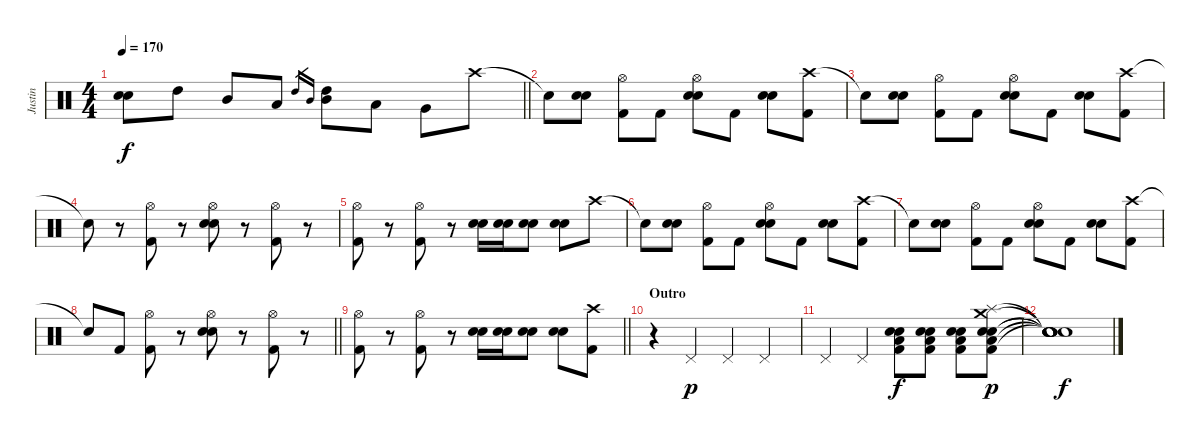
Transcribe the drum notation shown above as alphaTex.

\track ("Justin" "Justin") {instrument percussion}
\staff {score}
\articulation defaults
\ts (4 4)
\tempo 170
\clef neutral
\barLineRight lightlight
\ks c
("Electric Snare (hit)" "Snare (hit) 2").8{dy f} "High Tom (hit)".8 "Mid Tom (hit)".8 "Low Tom (hit)".8 "High Tom (hit)".16{gr} "Mid Tom (hit)".16{gr} ("High Tom (hit)" "Mid Tom (hit)").8 "Low Tom (hit)".8 "Very Low Tom (hit)".8 "Crash high (hit)".8 |
"Snare (hit)"{t}.8 ("Electric Snare (hit)" "Snare (hit) 2").8 ("Hi-Hat (open)" "Kick (hit) 2").8 "Kick (hit) 2".8 ("Hi-Hat (open)" "Electric Snare (hit)" "Snare (hit) 2").8 "Kick (hit) 2".8 ("Electric Snare (hit)" "Snare (hit) 2").8 ("Crash high (hit)" "Kick (hit) 2").8 |
"Snare (hit)"{t}.8 ("Electric Snare (hit)" "Snare (hit) 2").8 ("Hi-Hat (open)" "Kick (hit) 2").8 "Kick (hit) 2".8 ("Hi-Hat (open)" "Electric Snare (hit)" "Snare (hit) 2").8 "Kick (hit) 2".8 ("Electric Snare (hit)" "Snare (hit) 2").8 ("Crash high (hit)" "Kick (hit) 2").8 |
"Snare (hit)"{t}.8 r.8 ("Hi-Hat (open)" "Kick (hit) 2").8 r.8 ("Hi-Hat (open)" "Electric Snare (hit)" "Snare (hit) 2").8 r.8 ("Hi-Hat (open)" "Kick (hit) 2").8 r.8 |
("Hi-Hat (open)" "Kick (hit) 2").8 r.8 ("Hi-Hat (open)" "Kick (hit) 2").8 r.8 ("Electric Snare (hit)" "Snare (hit) 2").16 ("Electric Snare (hit)" "Snare (hit) 2").16 ("Electric Snare (hit)" "Snare (hit) 2").8 ("Electric Snare (hit)" "Snare (hit) 2").8 "Crash high (hit)".8 |
"Snare (hit)"{t}.8 ("Electric Snare (hit)" "Snare (hit) 2").8 ("Hi-Hat (open)" "Kick (hit) 2").8 "Kick (hit) 2".8 ("Hi-Hat (open)" "Electric Snare (hit)" "Snare (hit) 2").8 "Kick (hit) 2".8 ("Electric Snare (hit)" "Snare (hit) 2").8 ("Crash high (hit)" "Kick (hit) 2").8 |
"Snare (hit)"{t}.8 ("Electric Snare (hit)" "Snare (hit) 2").8 ("Hi-Hat (open)" "Kick (hit) 2").8 "Kick (hit) 2".8 ("Hi-Hat (open)" "Electric Snare (hit)" "Snare (hit) 2").8 "Kick (hit) 2".8 ("Electric Snare (hit)" "Snare (hit) 2").8 ("Crash high (hit)" "Kick (hit) 2").8 |
\barLineRight lightlight "Snare (hit)"{t}.8 "Kick (hit) 2".8
("Hi-Hat (open)" "Kick (hit) 2").8 r.8 ("Hi-Hat (open)" "Electric Snare (hit)" "Snare (hit) 2").8 r.8 ("Hi-Hat (open)" "Kick (hit) 2").8 r.8 |
\barLineRight lightlight
("Hi-Hat (open)" "Kick (hit) 2").8 r.8 ("Hi-Hat (open)" "Kick (hit) 2").8 r.8 ("Electric Snare (hit)" "Snare (hit) 2").16 ("Electric Snare (hit)" "Snare (hit) 2").16 ("Electric Snare (hit)" "Snare (hit) 2").8 ("Electric Snare (hit)" "Snare (hit) 2").8 ("Crash high (hit)" "Kick (hit) 2").8 |
\section ("" "Outro")
r.4 "Pedal Hi-Hat (hit)".4{dy p} "Pedal Hi-Hat (hit)".4 "Pedal Hi-Hat (hit)".4 |
"Pedal Hi-Hat (hit)".4 "Pedal Hi-Hat (hit)".4 ("Electric Snare (hit)" "Snare (hit) 2" "Low Floor Tom (hit)" "Kick (hit) 2").8{dy f} ("Electric Snare (hit)" "Snare (hit) 2" "Low Floor Tom (hit)" "Kick (hit) 2").8 ("Electric Snare (hit)" "Snare (hit) 2" "Low Floor Tom (hit)" "Kick (hit) 2").8 ("Crash medium (hit)" "Splash (hit)" "Electric Snare (hit)" "Snare (hit) 2" "Low Floor Tom (hit)" "Kick (hit) 2").8{dy p} |
("Snare (hit)"{t} "Snare (hit)"{t} "Snare (hit)"{t} "Snare (hit)"{t} "Snare (hit)"{t} "Snare (hit)"{t}).1{dy f}
